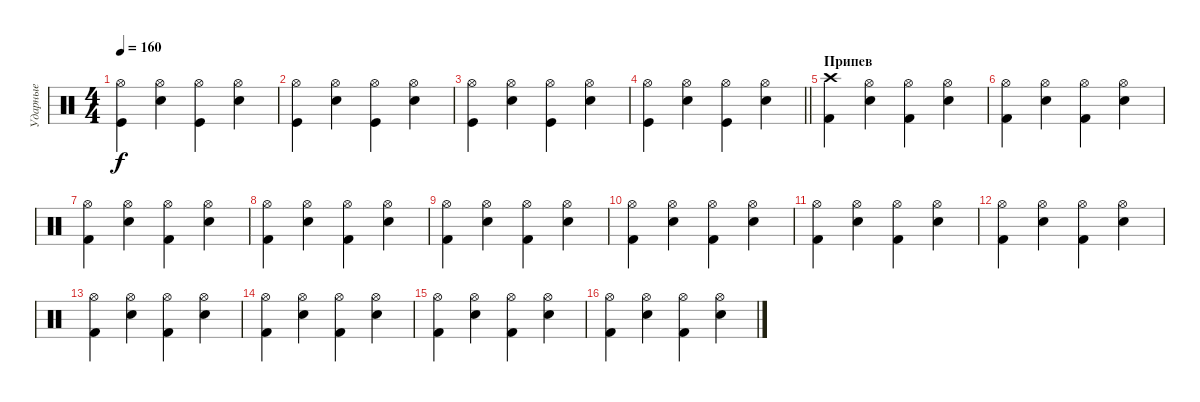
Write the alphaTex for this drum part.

\track ("Ударные" "Ударные") {instrument percussion}
\staff {score}
\articulation defaults
\ts (4 4)
\tempo 160
\clef neutral
\ks c
("Hi-Hat (open)" "Kick (hit)").4{dy f} ("Hi-Hat (open)" "Electric Snare (hit)").4 ("Hi-Hat (open)" "Kick (hit)").4 ("Hi-Hat (open)" "Electric Snare (hit)").4 |
("Hi-Hat (open)" "Kick (hit)").4 ("Hi-Hat (open)" "Electric Snare (hit)").4 ("Hi-Hat (open)" "Kick (hit)").4 ("Hi-Hat (open)" "Electric Snare (hit)").4 |
("Hi-Hat (open)" "Kick (hit)").4 ("Hi-Hat (open)" "Electric Snare (hit)").4 ("Hi-Hat (open)" "Kick (hit)").4 ("Hi-Hat (open)" "Electric Snare (hit)").4 |
\barLineRight lightlight
("Hi-Hat (open)" "Kick (hit)").4 ("Hi-Hat (open)" "Electric Snare (hit)").4 ("Hi-Hat (open)" "Kick (hit)").4 ("Hi-Hat (open)" "Electric Snare (hit)").4 |
\section ("" "Припев")
("Crash high (hit)" "Kick (hit) 2").4 ("Hi-Hat (open)" "Electric Snare (hit)").4 ("Hi-Hat (open)" "Kick (hit) 2").4 ("Hi-Hat (open)" "Electric Snare (hit)").4 |
("Hi-Hat (open)" "Kick (hit) 2").4 ("Hi-Hat (open)" "Electric Snare (hit)").4 ("Hi-Hat (open)" "Kick (hit) 2").4 ("Hi-Hat (open)" "Electric Snare (hit)").4 |
("Hi-Hat (open)" "Kick (hit) 2").4 ("Hi-Hat (open)" "Electric Snare (hit)").4 ("Hi-Hat (open)" "Kick (hit) 2").4 ("Hi-Hat (open)" "Electric Snare (hit)").4 |
("Hi-Hat (open)" "Kick (hit) 2").4 ("Hi-Hat (open)" "Electric Snare (hit)").4 ("Hi-Hat (open)" "Kick (hit) 2").4 ("Hi-Hat (open)" "Electric Snare (hit)").4 |
("Hi-Hat (open)" "Kick (hit) 2").4 ("Hi-Hat (open)" "Electric Snare (hit)").4 ("Hi-Hat (open)" "Kick (hit) 2").4 ("Hi-Hat (open)" "Electric Snare (hit)").4 |
("Hi-Hat (open)" "Kick (hit) 2").4 ("Hi-Hat (open)" "Electric Snare (hit)").4 ("Hi-Hat (open)" "Kick (hit) 2").4 ("Hi-Hat (open)" "Electric Snare (hit)").4 |
("Hi-Hat (open)" "Kick (hit) 2").4 ("Hi-Hat (open)" "Electric Snare (hit)").4 ("Hi-Hat (open)" "Kick (hit) 2").4 ("Hi-Hat (open)" "Electric Snare (hit)").4 |
("Hi-Hat (open)" "Kick (hit) 2").4 ("Hi-Hat (open)" "Electric Snare (hit)").4 ("Hi-Hat (open)" "Kick (hit) 2").4 ("Hi-Hat (open)" "Electric Snare (hit)").4 |
("Hi-Hat (open)" "Kick (hit) 2").4 ("Hi-Hat (open)" "Electric Snare (hit)").4 ("Hi-Hat (open)" "Kick (hit) 2").4 ("Hi-Hat (open)" "Electric Snare (hit)").4 |
("Hi-Hat (open)" "Kick (hit) 2").4 ("Hi-Hat (open)" "Electric Snare (hit)").4 ("Hi-Hat (open)" "Kick (hit) 2").4 ("Hi-Hat (open)" "Electric Snare (hit)").4 |
("Hi-Hat (open)" "Kick (hit) 2").4 ("Hi-Hat (open)" "Electric Snare (hit)").4 ("Hi-Hat (open)" "Kick (hit) 2").4 ("Hi-Hat (open)" "Electric Snare (hit)").4 |
("Hi-Hat (open)" "Kick (hit) 2").4 ("Hi-Hat (open)" "Electric Snare (hit)").4 ("Hi-Hat (open)" "Kick (hit) 2").4 ("Hi-Hat (open)" "Electric Snare (hit)").4
